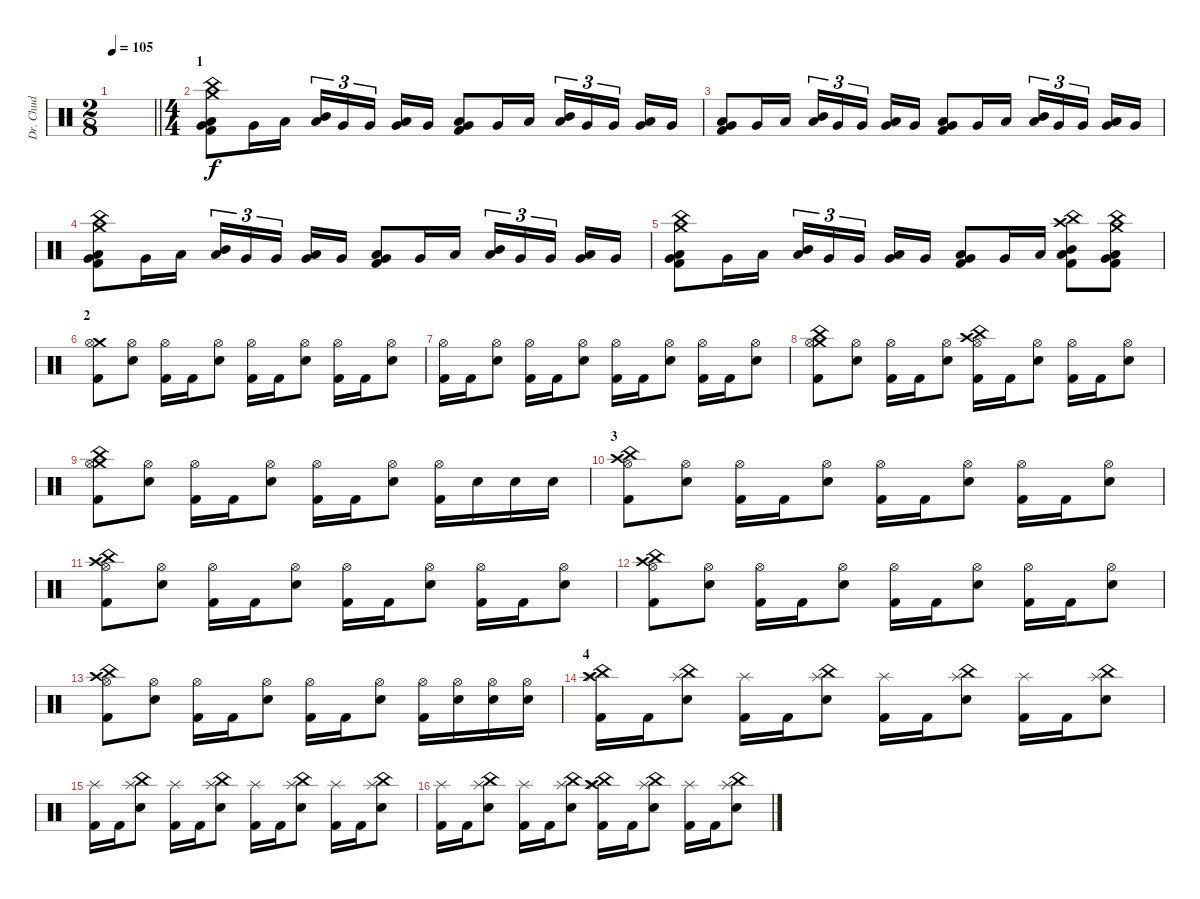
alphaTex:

\track ("Dr. Chud" "Dr. Chud") {instrument percussion}
\staff {score}
\articulation defaults
\ts (2 8)
\tempo 105
\clef neutral
\barLineRight lightlight
\ks c
|
\ts (4 4)
\section ("" "1")
("Crash medium (hit)" "China (hit)" "Very Low Tom (hit)" "Low Floor Tom (hit)" "Kick (hit) 2").8 "Very Low Tom (hit)".16 "Low Tom (hit)".16 ("Mid Tom (hit)" "Low Tom (hit)").16{tu (3 2)} "Very Low Tom (hit)".16{tu (3 2)} "Very Low Tom (hit)".16{tu (3 2)} ("Very Low Tom (hit)" "Low Floor Tom (hit)").16 "Very Low Tom (hit)".16 ("Very Low Tom (hit)" "Low Floor Tom (hit)" "Kick (hit) 2").8 "Very Low Tom (hit)".16 "Low Tom (hit)".16 ("Mid Tom (hit)" "Low Tom (hit)").16{tu (3 2)} "Very Low Tom (hit)".16{tu (3 2)} "Very Low Tom (hit)".16{tu (3 2)} ("Very Low Tom (hit)" "Low Floor Tom (hit)").16 "Very Low Tom (hit)".16 |
("Very Low Tom (hit)" "Low Floor Tom (hit)" "Kick (hit) 2").8 "Very Low Tom (hit)".16 "Low Tom (hit)".16 ("Mid Tom (hit)" "Low Tom (hit)").16{tu (3 2)} "Very Low Tom (hit)".16{tu (3 2)} "Very Low Tom (hit)".16{tu (3 2)} ("Very Low Tom (hit)" "Low Floor Tom (hit)").16 "Very Low Tom (hit)".16 ("Very Low Tom (hit)" "Low Floor Tom (hit)" "Kick (hit) 2").8 "Very Low Tom (hit)".16 "Low Tom (hit)".16 ("Mid Tom (hit)" "Low Tom (hit)").16{tu (3 2)} "Very Low Tom (hit)".16{tu (3 2)} "Very Low Tom (hit)".16{tu (3 2)} ("Very Low Tom (hit)" "Low Floor Tom (hit)").16 "Very Low Tom (hit)".16 |
("Crash medium (hit)" "China (hit)" "Very Low Tom (hit)" "Low Floor Tom (hit)" "Kick (hit) 2").8 "Very Low Tom (hit)".16 "Low Tom (hit)".16 ("Mid Tom (hit)" "Low Tom (hit)").16{tu (3 2)} "Very Low Tom (hit)".16{tu (3 2)} "Very Low Tom (hit)".16{tu (3 2)} ("Very Low Tom (hit)" "Low Floor Tom (hit)").16 "Very Low Tom (hit)".16 ("Very Low Tom (hit)" "Low Floor Tom (hit)" "Kick (hit) 2").8 "Very Low Tom (hit)".16 "Low Tom (hit)".16 ("Mid Tom (hit)" "Low Tom (hit)").16{tu (3 2)} "Very Low Tom (hit)".16{tu (3 2)} "Very Low Tom (hit)".16{tu (3 2)} ("Very Low Tom (hit)" "Low Floor Tom (hit)").16 "Very Low Tom (hit)".16 |
("Crash medium (hit)" "China (hit)" "Very Low Tom (hit)" "Low Floor Tom (hit)" "Kick (hit) 2").8 "Very Low Tom (hit)".16 "Low Tom (hit)".16 ("Mid Tom (hit)" "Low Tom (hit)").16{tu (3 2)} "Very Low Tom (hit)".16{tu (3 2)} "Very Low Tom (hit)".16{tu (3 2)} ("Very Low Tom (hit)" "Low Floor Tom (hit)").16 "Very Low Tom (hit)".16 ("Very Low Tom (hit)" "Low Floor Tom (hit)" "Kick (hit) 2").8 "Very Low Tom (hit)".16 "Low Tom (hit)".16 ("Crash high (hit)" "China (hit)" "Mid Tom (hit)" "Low Tom (hit)" "Kick (hit) 2").8 ("Crash medium (hit)" "China (hit)" "Very Low Tom (hit)" "Low Floor Tom (hit)" "Kick (hit) 2").8 |
\section ("" "2")
("Crash medium (hit)" "Hi-Hat (open)" "Kick (hit) 2").8 ("Hi-Hat (open)" "Electric Snare (hit)").8 ("Hi-Hat (open)" "Kick (hit) 2").16 "Kick (hit) 2".16 ("Hi-Hat (open)" "Electric Snare (hit)").8 ("Hi-Hat (open)" "Kick (hit) 2").16 "Kick (hit) 2".16 ("Hi-Hat (open)" "Electric Snare (hit)").8 ("Hi-Hat (open)" "Kick (hit) 2").16 "Kick (hit) 2".16 ("Hi-Hat (open)" "Electric Snare (hit)").8 |
("Hi-Hat (open)" "Kick (hit) 2").16 "Kick (hit) 2".16 ("Hi-Hat (open)" "Electric Snare (hit)").8 ("Hi-Hat (open)" "Kick (hit) 2").16 "Kick (hit) 2".16 ("Hi-Hat (open)" "Electric Snare (hit)").8 ("Hi-Hat (open)" "Kick (hit) 2").16 "Kick (hit) 2".16 ("Hi-Hat (open)" "Electric Snare (hit)").8 ("Hi-Hat (open)" "Kick (hit) 2").16 "Kick (hit) 2".16 ("Hi-Hat (open)" "Electric Snare (hit)").8 |
("Crash medium (hit)" "China (hit)" "Hi-Hat (open)" "Kick (hit) 2").8 ("Hi-Hat (open)" "Electric Snare (hit)").8 ("Hi-Hat (open)" "Kick (hit) 2").16 "Kick (hit) 2".16 ("Hi-Hat (open)" "Electric Snare (hit)").8 ("Crash high (hit)" "China (hit)" "Hi-Hat (open)" "Kick (hit) 2").16 "Kick (hit) 2".16 ("Hi-Hat (open)" "Electric Snare (hit)").8 ("Hi-Hat (open)" "Kick (hit) 2").16 "Kick (hit) 2".16 ("Hi-Hat (open)" "Electric Snare (hit)").8 |
("Crash medium (hit)" "China (hit)" "Hi-Hat (open)" "Kick (hit) 2").8 ("Hi-Hat (open)" "Electric Snare (hit)").8 ("Hi-Hat (open)" "Kick (hit) 2").16 "Kick (hit) 2".16 ("Hi-Hat (open)" "Electric Snare (hit)").8 ("Hi-Hat (open)" "Kick (hit) 2").16 "Kick (hit) 2".16 ("Hi-Hat (open)" "Electric Snare (hit)").8 ("Hi-Hat (open)" "Kick (hit) 2").16 "Electric Snare (hit)".16 "Electric Snare (hit)".16 "Electric Snare (hit)".16 |
\section ("" "3")
("Crash high (hit)" "China (hit)" "Hi-Hat (open)" "Kick (hit) 2").8 ("Hi-Hat (open)" "Electric Snare (hit)").8 ("Hi-Hat (open)" "Kick (hit) 2").16 "Kick (hit) 2".16 ("Hi-Hat (open)" "Electric Snare (hit)").8 ("Hi-Hat (open)" "Kick (hit) 2").16 "Kick (hit) 2".16 ("Hi-Hat (open)" "Electric Snare (hit)").8 ("Hi-Hat (open)" "Kick (hit) 2").16 "Kick (hit) 2".16 ("Hi-Hat (open)" "Electric Snare (hit)").8 |
("Crash high (hit)" "China (hit)" "Hi-Hat (open)" "Kick (hit) 2").8 ("Hi-Hat (open)" "Electric Snare (hit)").8 ("Hi-Hat (open)" "Kick (hit) 2").16 "Kick (hit) 2".16 ("Hi-Hat (open)" "Electric Snare (hit)").8 ("Hi-Hat (open)" "Kick (hit) 2").16 "Kick (hit) 2".16 ("Hi-Hat (open)" "Electric Snare (hit)").8 ("Hi-Hat (open)" "Kick (hit) 2").16 "Kick (hit) 2".16 ("Hi-Hat (open)" "Electric Snare (hit)").8 |
("Crash high (hit)" "China (hit)" "Hi-Hat (open)" "Kick (hit) 2").8 ("Hi-Hat (open)" "Electric Snare (hit)").8 ("Hi-Hat (open)" "Kick (hit) 2").16 "Kick (hit) 2".16 ("Hi-Hat (open)" "Electric Snare (hit)").8 ("Hi-Hat (open)" "Kick (hit) 2").16 "Kick (hit) 2".16 ("Hi-Hat (open)" "Electric Snare (hit)").8 ("Hi-Hat (open)" "Kick (hit) 2").16 "Kick (hit) 2".16 ("Hi-Hat (open)" "Electric Snare (hit)").8 |
("Crash high (hit)" "China (hit)" "Hi-Hat (open)" "Kick (hit) 2").8 ("Hi-Hat (open)" "Electric Snare (hit)").8 ("Hi-Hat (open)" "Kick (hit) 2").16 "Kick (hit) 2".16 ("Hi-Hat (open)" "Electric Snare (hit)").8 ("Hi-Hat (open)" "Kick (hit) 2").16 "Kick (hit) 2".16 ("Hi-Hat (open)" "Electric Snare (hit)").8 ("Hi-Hat (open)" "Kick (hit) 2").16 ("Hi-Hat (open)" "Electric Snare (hit)").16 ("Hi-Hat (open)" "Electric Snare (hit)").16 ("Hi-Hat (open)" "Electric Snare (hit)").16 |
\section ("" "4")
("Crash high (hit)" "China (hit)" "Splash (hit)" "Kick (hit) 2").16 "Kick (hit) 2".16 ("China (hit)" "Splash (hit)" "Electric Snare (hit)").8 ("Splash (hit)" "Kick (hit) 2").16 "Kick (hit) 2".16 ("China (hit)" "Splash (hit)" "Electric Snare (hit)").8 ("Splash (hit)" "Kick (hit) 2").16 "Kick (hit) 2".16 ("China (hit)" "Splash (hit)" "Electric Snare (hit)").8 ("Splash (hit)" "Kick (hit) 2").16 "Kick (hit) 2".16 ("China (hit)" "Splash (hit)" "Electric Snare (hit)").8 |
("Splash (hit)" "Kick (hit) 2").16 "Kick (hit) 2".16 ("China (hit)" "Splash (hit)" "Electric Snare (hit)").8 ("Splash (hit)" "Kick (hit) 2").16 "Kick (hit) 2".16 ("China (hit)" "Splash (hit)" "Electric Snare (hit)").8 ("Splash (hit)" "Kick (hit) 2").16 "Kick (hit) 2".16 ("China (hit)" "Splash (hit)" "Electric Snare (hit)").8 ("Splash (hit)" "Kick (hit) 2").16 "Kick (hit) 2".16 ("China (hit)" "Splash (hit)" "Electric Snare (hit)").8 |
("Splash (hit)" "Kick (hit) 2").16 "Kick (hit) 2".16 ("China (hit)" "Splash (hit)" "Electric Snare (hit)").8 ("Splash (hit)" "Kick (hit) 2").16 "Kick (hit) 2".16 ("China (hit)" "Splash (hit)" "Electric Snare (hit)").8 ("Crash high (hit)" "China (hit)" "Splash (hit)" "Kick (hit) 2").16 "Kick (hit) 2".16 ("China (hit)" "Splash (hit)" "Electric Snare (hit)").8 ("Splash (hit)" "Kick (hit) 2").16 "Kick (hit) 2".16 ("China (hit)" "Splash (hit)" "Electric Snare (hit)").8
